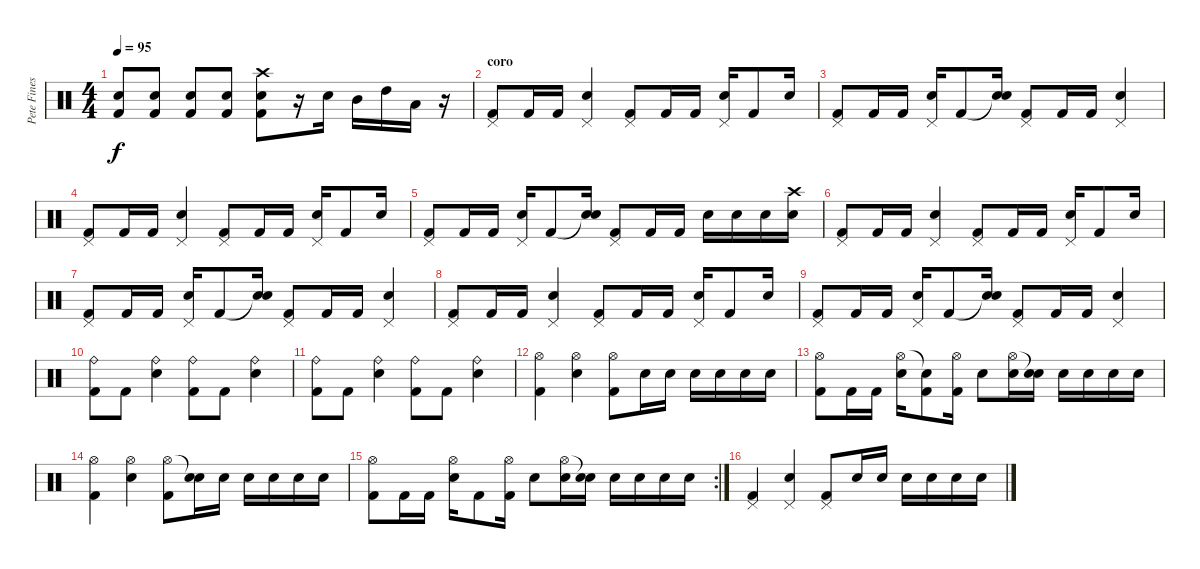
\track ("Pete Finestone" "Pete Fines") {instrument percussion}
\staff {score}
\articulation defaults
\ts (4 4)
\tempo 95
\clef neutral
\ks c
("Electric Snare (hit)" "Kick (hit) 2").8{dy f} ("Electric Snare (hit)" "Kick (hit) 2").8 ("Electric Snare (hit)" "Kick (hit) 2").8 ("Electric Snare (hit)" "Kick (hit) 2").8 ("Crash high (hit)" "Electric Snare (hit)" "Kick (hit) 2").8 r.16 "Electric Snare (hit)".16 "Mid Tom (hit)".16 "High Tom (hit)".16 "Low Tom (hit)".16 r.16 |
\section ("" "coro")
("Pedal Hi-Hat (hit)" "Kick (hit) 2").8 "Kick (hit) 2".16 "Kick (hit) 2".16 ("Pedal Hi-Hat (hit)" "Snare (hit) 2").4 ("Pedal Hi-Hat (hit)" "Kick (hit) 2").8 "Kick (hit) 2".16 "Kick (hit) 2".16 ("Pedal Hi-Hat (hit)" "Snare (hit) 2").16 "Kick (hit) 2".8 "Snare (hit) 2".16 |
("Pedal Hi-Hat (hit)" "Kick (hit) 2").8 "Kick (hit) 2".16 "Kick (hit) 2".16 ("Pedal Hi-Hat (hit)" "Snare (hit) 2").16 "Kick (hit) 2".8 ("Snare (hit)"{t} "Snare (hit) 2").16 ("Pedal Hi-Hat (hit)" "Kick (hit) 2").8 "Kick (hit) 2".16 "Kick (hit) 2".16 ("Pedal Hi-Hat (hit)" "Snare (hit) 2").4 |
("Pedal Hi-Hat (hit)" "Kick (hit) 2").8 "Kick (hit) 2".16 "Kick (hit) 2".16 ("Pedal Hi-Hat (hit)" "Electric Snare (hit)").4 ("Pedal Hi-Hat (hit)" "Kick (hit) 2").8 "Kick (hit) 2".16 "Kick (hit) 2".16 ("Pedal Hi-Hat (hit)" "Electric Snare (hit)").16 "Kick (hit) 2".8 "Electric Snare (hit)".16 |
("Pedal Hi-Hat (hit)" "Kick (hit) 2").8 "Kick (hit) 2".16 "Kick (hit) 2".16 ("Pedal Hi-Hat (hit)" "Electric Snare (hit)").16 "Kick (hit) 2".8 ("Snare (hit)"{t} "Electric Snare (hit)").16 ("Pedal Hi-Hat (hit)" "Kick (hit) 2").8 "Kick (hit) 2".16 "Kick (hit) 2".16 "Electric Snare (hit)".16 "Electric Snare (hit)".16 "Electric Snare (hit)".16 ("Crash high (hit)" "Electric Snare (hit)").16 |
("Pedal Hi-Hat (hit)" "Kick (hit) 2").8 "Kick (hit) 2".16 "Kick (hit) 2".16 ("Pedal Hi-Hat (hit)" "Electric Snare (hit)").4 ("Pedal Hi-Hat (hit)" "Kick (hit) 2").8 "Kick (hit) 2".16 "Kick (hit) 2".16 ("Pedal Hi-Hat (hit)" "Electric Snare (hit)").16 "Kick (hit) 2".8 "Electric Snare (hit)".16 |
("Pedal Hi-Hat (hit)" "Kick (hit) 2").8 "Kick (hit) 2".16 "Kick (hit) 2".16 ("Pedal Hi-Hat (hit)" "Electric Snare (hit)").16 "Kick (hit) 2".8 ("Snare (hit)"{t} "Electric Snare (hit)").16 ("Pedal Hi-Hat (hit)" "Kick (hit) 2").8 "Kick (hit) 2".16 "Kick (hit) 2".16 ("Pedal Hi-Hat (hit)" "Electric Snare (hit)").4 |
("Pedal Hi-Hat (hit)" "Kick (hit) 2").8 "Kick (hit) 2".16 "Kick (hit) 2".16 ("Pedal Hi-Hat (hit)" "Snare (hit) 2").4 ("Pedal Hi-Hat (hit)" "Kick (hit) 2").8 "Kick (hit) 2".16 "Kick (hit) 2".16 ("Pedal Hi-Hat (hit)" "Snare (hit) 2").16 "Kick (hit) 2".8 "Snare (hit) 2".16 |
("Pedal Hi-Hat (hit)" "Kick (hit) 2").8 "Kick (hit) 2".16 "Kick (hit) 2".16 ("Pedal Hi-Hat (hit)" "Snare (hit) 2").16 "Kick (hit) 2".8 ("Snare (hit)"{t} "Snare (hit) 2").16 ("Pedal Hi-Hat (hit)" "Kick (hit) 2").8 "Kick (hit) 2".16 "Kick (hit) 2".16 ("Pedal Hi-Hat (hit)" "Snare (hit) 2").4 |
("Ride (bell)" "Kick (hit) 2").8 "Kick (hit) 2".8 ("Ride (bell)" "Electric Snare (hit)").4 ("Ride (bell)" "Kick (hit) 2").8 "Kick (hit) 2".8 ("Ride (bell)" "Electric Snare (hit)").4 |
("Ride (bell)" "Kick (hit) 2").8 "Kick (hit) 2".8 ("Ride (bell)" "Electric Snare (hit)").4 ("Ride (bell)" "Kick (hit) 2").8 "Kick (hit) 2".8 ("Ride (bell)" "Electric Snare (hit)").4 |
("Hi-Hat (open)" "Kick (hit) 2").4 ("Hi-Hat (open)" "Electric Snare (hit)").4 ("Hi-Hat (open)" "Kick (hit) 2").8 "Electric Snare (hit)".16 "Electric Snare (hit)".16 "Electric Snare (hit)".16 "Electric Snare (hit)".16 "Electric Snare (hit)".16 "Electric Snare (hit)".16 |
("Hi-Hat (open)" "Kick (hit) 2").8 "Kick (hit) 2".16 "Kick (hit) 2".16 ("Hi-Hat (open)" "Electric Snare (hit)").16 ("Snare (hit)"{t} "Kick (hit) 2").8 ("Hi-Hat (open)" "Kick (hit) 2").16 "Electric Snare (hit)".8 ("Hi-Hat (open)" "Electric Snare (hit)").16 ("Snare (hit)"{t} "Electric Snare (hit)").16 "Electric Snare (hit)".16 "Electric Snare (hit)".16 "Electric Snare (hit)".16 "Electric Snare (hit)".16 |
("Hi-Hat (open)" "Kick (hit) 2").4 ("Hi-Hat (open)" "Electric Snare (hit)").4 ("Hi-Hat (open)" "Kick (hit) 2").8 ("Snare (hit)"{t} "Electric Snare (hit)").16 "Electric Snare (hit)".16 "Electric Snare (hit)".16 "Electric Snare (hit)".16 "Electric Snare (hit)".16 "Electric Snare (hit)".16 |
\rc 2
("Hi-Hat (open)" "Kick (hit) 2").8 "Kick (hit) 2".16 "Kick (hit) 2".16 ("Hi-Hat (open)" "Electric Snare (hit)").16 "Kick (hit) 2".8 ("Hi-Hat (open)" "Kick (hit) 2").16 "Electric Snare (hit)".8 ("Hi-Hat (open)" "Electric Snare (hit)").16 ("Snare (hit)"{t} "Electric Snare (hit)").16 "Electric Snare (hit)".16 "Electric Snare (hit)".16 "Electric Snare (hit)".16 "Electric Snare (hit)".16 |
("Kick (hit) 2" "Pedal Hi-Hat (hit)").4 ("Pedal Hi-Hat (hit)" "Snare (hit) 2").4 ("Kick (hit) 2" "Pedal Hi-Hat (hit)").8 "Electric Snare (hit)".16 "Electric Snare (hit)".16 "Electric Snare (hit)".16 "Electric Snare (hit)".16 "Electric Snare (hit)".16 "Electric Snare (hit)".16
